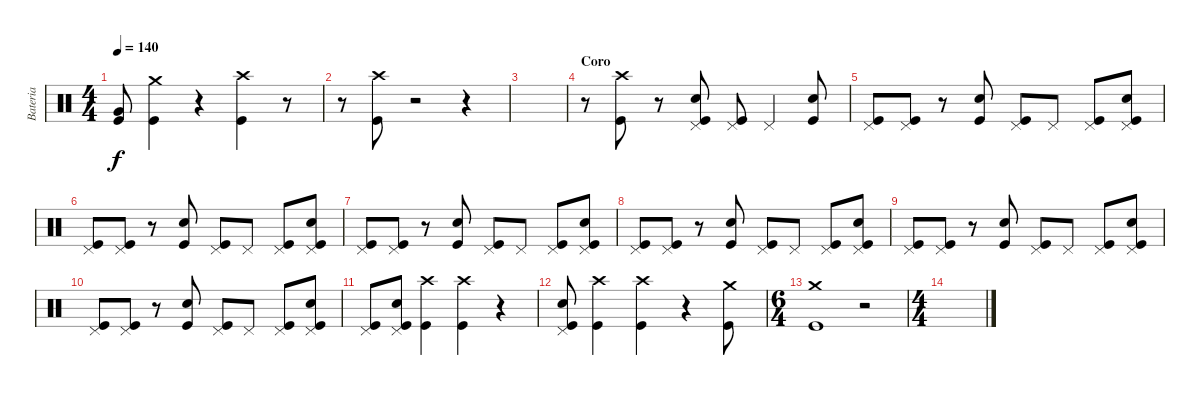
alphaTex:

\track ("Bateria" "Bateria") {instrument percussion}
\staff {score}
\articulation defaults
\ts (4 4)
\tempo 140
\clef neutral
\ks c
("Kick (hit)" "Very Low Tom (hit)").8{dy f} ("Kick (hit)" "Crash medium (hit)").4 r.4 ("Kick (hit)" "Crash high (hit)").4 r.8 |
r.8 ("Kick (hit)" "Crash high (hit)").8 r.2 r.4 |
|
\section ("" "Coro")
r.8 ("Kick (hit)" "Crash high (hit)").8 r.8 ("Kick (hit)" "Snare (hit) 2" "Pedal Hi-Hat (hit)").8 ("Kick (hit)" "Pedal Hi-Hat (hit)").8 "Pedal Hi-Hat (hit)".4 ("Kick (hit)" "Snare (hit) 2").8 |
\section ("" "")
("Kick (hit)" "Pedal Hi-Hat (hit)").8 ("Kick (hit)" "Pedal Hi-Hat (hit)").8 r.8 ("Kick (hit)" "Snare (hit) 2").8 ("Kick (hit)" "Pedal Hi-Hat (hit)").8 "Pedal Hi-Hat (hit)".8 ("Kick (hit)" "Pedal Hi-Hat (hit)").8 ("Kick (hit)" "Snare (hit) 2" "Pedal Hi-Hat (hit)").8 |
("Kick (hit)" "Pedal Hi-Hat (hit)").8 ("Kick (hit)" "Pedal Hi-Hat (hit)").8 r.8 ("Kick (hit)" "Snare (hit) 2").8 ("Kick (hit)" "Pedal Hi-Hat (hit)").8 "Pedal Hi-Hat (hit)".8 ("Kick (hit)" "Pedal Hi-Hat (hit)").8 ("Kick (hit)" "Snare (hit) 2" "Pedal Hi-Hat (hit)").8 |
("Kick (hit)" "Pedal Hi-Hat (hit)").8 ("Kick (hit)" "Pedal Hi-Hat (hit)").8 r.8 ("Kick (hit)" "Snare (hit) 2").8 ("Kick (hit)" "Pedal Hi-Hat (hit)").8 "Pedal Hi-Hat (hit)".8 ("Kick (hit)" "Pedal Hi-Hat (hit)").8 ("Kick (hit)" "Snare (hit) 2" "Pedal Hi-Hat (hit)").8 |
("Kick (hit)" "Pedal Hi-Hat (hit)").8 ("Kick (hit)" "Pedal Hi-Hat (hit)").8 r.8 ("Kick (hit)" "Snare (hit) 2").8 ("Kick (hit)" "Pedal Hi-Hat (hit)").8 "Pedal Hi-Hat (hit)".8 ("Kick (hit)" "Pedal Hi-Hat (hit)").8 ("Kick (hit)" "Snare (hit) 2" "Pedal Hi-Hat (hit)").8 |
("Kick (hit)" "Pedal Hi-Hat (hit)").8 ("Kick (hit)" "Pedal Hi-Hat (hit)").8 r.8 ("Kick (hit)" "Snare (hit) 2").8 ("Kick (hit)" "Pedal Hi-Hat (hit)").8 "Pedal Hi-Hat (hit)".8 ("Kick (hit)" "Pedal Hi-Hat (hit)").8 ("Kick (hit)" "Snare (hit) 2" "Pedal Hi-Hat (hit)").8 |
("Kick (hit)" "Pedal Hi-Hat (hit)").8 ("Kick (hit)" "Pedal Hi-Hat (hit)").8 r.8 ("Kick (hit)" "Snare (hit) 2").8 ("Kick (hit)" "Pedal Hi-Hat (hit)").8 "Pedal Hi-Hat (hit)".8 ("Kick (hit)" "Pedal Hi-Hat (hit)").8 ("Kick (hit)" "Snare (hit) 2" "Pedal Hi-Hat (hit)").8 |
("Kick (hit)" "Pedal Hi-Hat (hit)").8 ("Kick (hit)" "Snare (hit) 2" "Pedal Hi-Hat (hit)").8 ("Kick (hit)" "Crash high (hit)").4 ("Kick (hit)" "Crash high (hit)").4 r.4 |
("Kick (hit)" "Snare (hit) 2" "Pedal Hi-Hat (hit)").8 ("Kick (hit)" "Crash high (hit)").4 ("Kick (hit)" "Crash high (hit)").4 r.4 ("Kick (hit)" "Crash medium (hit)").8 |
\ts (6 4)
("Kick (hit)" "Crash medium (hit)").1 r.2 |
\ts (4 4)
